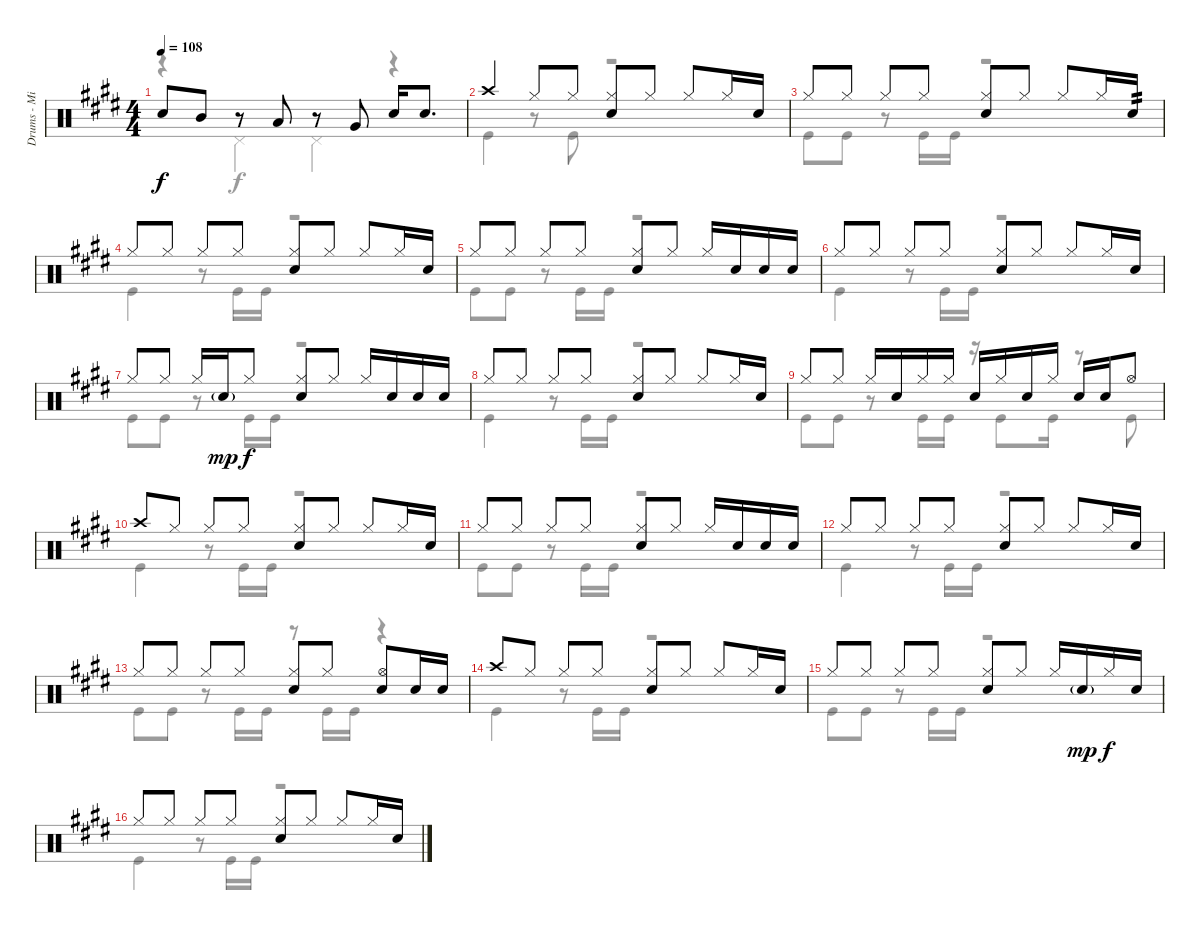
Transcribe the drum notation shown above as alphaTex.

\track ("Drums - Mike Portnoy" "Drums - Mi") {instrument percussion}
\staff {score}
\articulation defaults
\voice
\ts (4 4)
\tempo 108
\clef neutral
\ks e "Snare (hit) 2".8{dy f} "Mid Tom (hit)".8
r.8 "Low Tom (hit)".8 r.8 "Very Low Tom (hit)".8 "Snare (hit) 2".16 "Snare (hit) 2".8{d} |
"Crash high (hit)".4 "Hi-Hat (closed)".8 "Hi-Hat (closed)".8 ("Hi-Hat (closed)" "Snare (hit) 2").8 "Hi-Hat (closed)".8 "Hi-Hat (closed)".8 "Hi-Hat (closed)".16 "Snare (hit) 2".16 |
"Hi-Hat (closed)".8 "Hi-Hat (closed)".8 "Hi-Hat (closed)".8 "Hi-Hat (closed)".8 ("Hi-Hat (closed)" "Snare (hit) 2").8 "Hi-Hat (closed)".8 "Hi-Hat (closed)".8 "Hi-Hat (closed)".16 "Snare (hit) 2".16{tp 2} |
"Hi-Hat (closed)".8 "Hi-Hat (closed)".8 "Hi-Hat (closed)".8 "Hi-Hat (closed)".8 ("Hi-Hat (closed)" "Snare (hit) 2").8 "Hi-Hat (closed)".8 "Hi-Hat (closed)".8 "Hi-Hat (closed)".16 "Snare (hit) 2".16 |
"Hi-Hat (closed)".8 "Hi-Hat (closed)".8 "Hi-Hat (closed)".8 "Hi-Hat (closed)".8 ("Hi-Hat (closed)" "Snare (hit) 2").8 "Hi-Hat (closed)".8 "Hi-Hat (closed)".16 "Snare (hit) 2".16 "Snare (hit) 2".16 "Snare (hit) 2".16 |
"Hi-Hat (closed)".8 "Hi-Hat (closed)".8 "Hi-Hat (closed)".8 "Hi-Hat (closed)".8 ("Hi-Hat (closed)" "Snare (hit) 2").8 "Hi-Hat (closed)".8 "Hi-Hat (closed)".8 "Hi-Hat (closed)".16 "Snare (hit) 2".16 |
"Hi-Hat (closed)".8 "Hi-Hat (closed)".8 "Hi-Hat (closed)".16 "Snare (hit) 2"{g}.16{dy mp} "Hi-Hat (closed)".8{dy f} ("Hi-Hat (closed)" "Snare (hit) 2").8 "Hi-Hat (closed)".8 "Hi-Hat (closed)".16 "Snare (hit) 2".16 "Snare (hit) 2".16 "Snare (hit) 2".16 |
"Hi-Hat (closed)".8 "Hi-Hat (closed)".8 "Hi-Hat (closed)".8 "Hi-Hat (closed)".8 ("Hi-Hat (closed)" "Snare (hit) 2").8 "Hi-Hat (closed)".8 "Hi-Hat (closed)".8 "Hi-Hat (closed)".16 "Snare (hit) 2".16 |
"Hi-Hat (closed)".8 "Hi-Hat (closed)".8 "Hi-Hat (closed)".16 "Snare (hit) 2".16 "Hi-Hat (closed)".16 "Hi-Hat (closed)".16 "Snare (hit) 2".16 "Hi-Hat (closed)".16 "Snare (hit) 2".16 "Hi-Hat (closed)".16 "Snare (hit) 2".16 "Snare (hit) 2".16 "Hi-Hat (open)".8 |
"Crash high (hit)".8 "Hi-Hat (closed)".8 "Hi-Hat (closed)".8 "Hi-Hat (closed)".8 ("Hi-Hat (closed)" "Snare (hit) 2").8 "Hi-Hat (closed)".8 "Hi-Hat (closed)".8 "Hi-Hat (closed)".16 "Snare (hit) 2".16 |
"Hi-Hat (closed)".8 "Hi-Hat (closed)".8 "Hi-Hat (closed)".8 "Hi-Hat (closed)".8 ("Hi-Hat (closed)" "Snare (hit) 2").8 "Hi-Hat (closed)".8 "Hi-Hat (closed)".16 "Snare (hit) 2".16 "Snare (hit) 2".16 "Snare (hit) 2".16 |
"Hi-Hat (closed)".8 "Hi-Hat (closed)".8 "Hi-Hat (closed)".8 "Hi-Hat (closed)".8 ("Hi-Hat (closed)" "Snare (hit) 2").8 "Hi-Hat (closed)".8 "Hi-Hat (closed)".8 "Hi-Hat (closed)".16 "Snare (hit) 2".16 |
"Hi-Hat (closed)".8 "Hi-Hat (closed)".8 "Hi-Hat (closed)".8 "Hi-Hat (closed)".8 ("Hi-Hat (closed)" "Snare (hit) 2").8 "Hi-Hat (closed)".8 ("Hi-Hat (open)" "Snare (hit) 2").8 "Snare (hit) 2".16 "Snare (hit) 2".16 |
"Crash high (hit)".8 "Hi-Hat (closed)".8 "Hi-Hat (closed)".8 "Hi-Hat (closed)".8 ("Hi-Hat (closed)" "Snare (hit) 2").8 "Hi-Hat (closed)".8 "Hi-Hat (closed)".8 "Hi-Hat (closed)".16 "Snare (hit) 2".16 |
"Hi-Hat (closed)".8 "Hi-Hat (closed)".8 "Hi-Hat (closed)".8 "Hi-Hat (closed)".8 ("Hi-Hat (closed)" "Snare (hit) 2").8 "Hi-Hat (closed)".8 "Hi-Hat (closed)".16 "Snare (hit) 2"{g}.16{dy mp} "Hi-Hat (closed)".16{dy f} "Snare (hit) 2".16 |
"Hi-Hat (closed)".8 "Hi-Hat (closed)".8 "Hi-Hat (closed)".8 "Hi-Hat (closed)".8 ("Hi-Hat (closed)" "Snare (hit) 2").8 "Hi-Hat (closed)".8 "Hi-Hat (closed)".8 "Hi-Hat (closed)".16 "Snare (hit) 2".16
\voice
\clef neutral
\ottava regular
\simile none
\ks e
r.4{dy f} "Pedal Hi-Hat (hit)".4 "Pedal Hi-Hat (hit)".4 r.4 |
"Kick (hit)".4 r.8 "Kick (hit)".8 r.2 |
"Kick (hit)".8 "Kick (hit)".8 r.8 "Kick (hit)".16 "Kick (hit)".16 r.2 |
"Kick (hit)".4 r.8 "Kick (hit)".16 "Kick (hit)".16 r.2 |
"Kick (hit)".8 "Kick (hit)".8 r.8 "Kick (hit)".16 "Kick (hit)".16 r.2 |
"Kick (hit)".4 r.8 "Kick (hit)".16 "Kick (hit)".16 r.2 |
"Kick (hit)".8 "Kick (hit)".8 r.8 "Kick (hit)".16 "Kick (hit)".16 r.2 |
"Kick (hit)".4 r.8 "Kick (hit)".16 "Kick (hit)".16 r.2 |
"Kick (hit)".8 "Kick (hit)".8 r.8 "Kick (hit)".16 "Kick (hit)".16 r.16 "Kick (hit)".8 "Kick (hit)".16 r.8 "Kick (hit)".8 |
"Kick (hit)".4 r.8 "Kick (hit)".16 "Kick (hit)".16 r.2 |
"Kick (hit)".8 "Kick (hit)".8 r.8 "Kick (hit)".16 "Kick (hit)".16 r.2 |
"Kick (hit)".4 r.8 "Kick (hit)".16 "Kick (hit)".16 r.2 |
"Kick (hit)".8 "Kick (hit)".8 r.8 "Kick (hit)".16 "Kick (hit)".16 r.8 "Kick (hit)".16 "Kick (hit)".16 r.4 |
"Kick (hit)".4 r.8 "Kick (hit)".16 "Kick (hit)".16 r.2 |
"Kick (hit)".8 "Kick (hit)".8 r.8 "Kick (hit)".16 "Kick (hit)".16 r.2 |
"Kick (hit)".4 r.8 "Kick (hit)".16 "Kick (hit)".16 r.2
